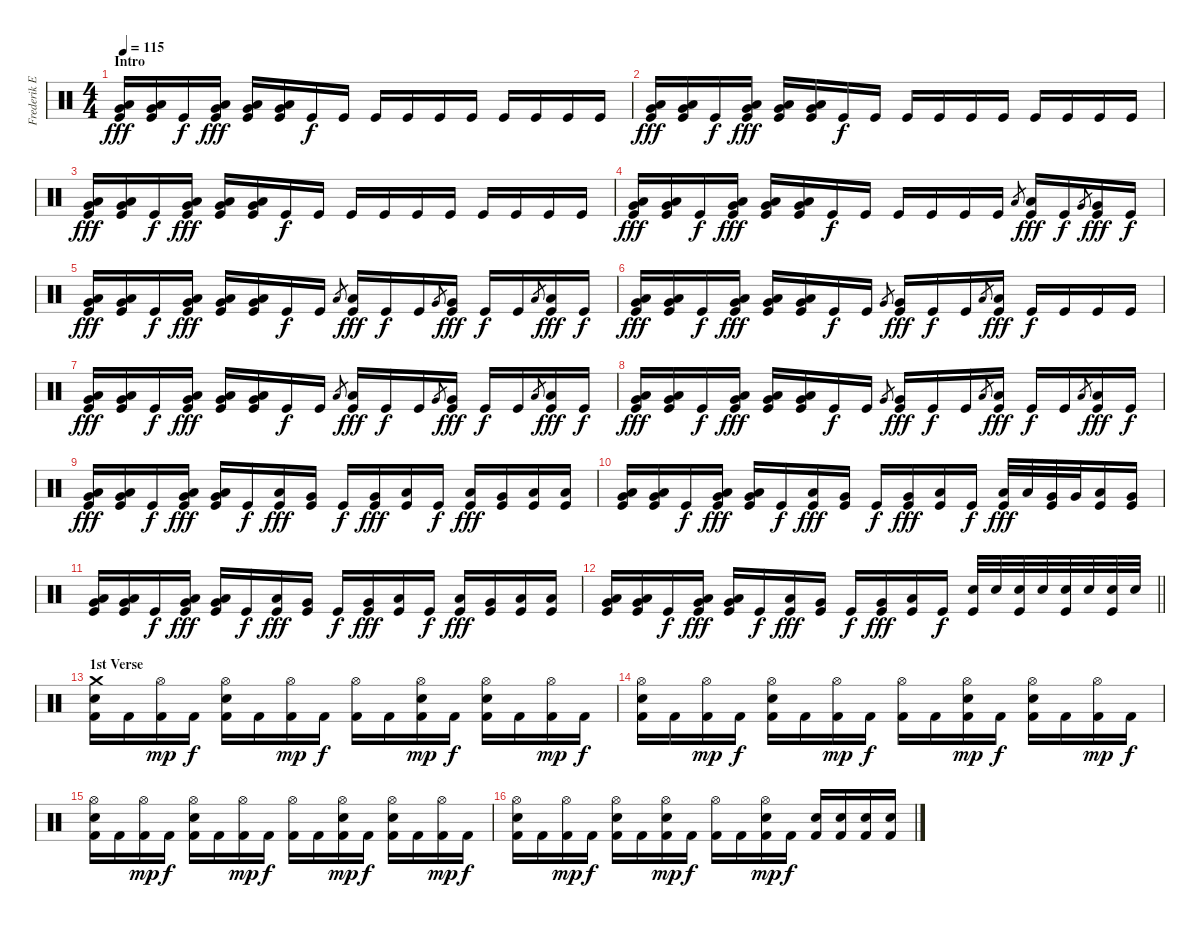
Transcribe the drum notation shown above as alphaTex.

\track ("Frederik Ehmke" "Frederik E") {instrument percussion}
\staff {score}
\articulation defaults
\ts (4 4)
\section ("" "Intro")
\tempo 115
\clef neutral
\ks c
("Very Low Tom (hit)" "Low Floor Tom (hit)" "Kick (hit)").16{dy fff} ("Very Low Tom (hit)" "Low Floor Tom (hit)" "Kick (hit)").16 "Kick (hit)".16{dy f} ("Very Low Tom (hit)" "Low Floor Tom (hit)" "Kick (hit)").16{dy fff} ("Very Low Tom (hit)" "Low Floor Tom (hit)" "Kick (hit)").16 ("Very Low Tom (hit)" "Low Floor Tom (hit)" "Kick (hit)").16 "Kick (hit)".16{dy f} "Kick (hit)".16 "Kick (hit)".16 "Kick (hit)".16 "Kick (hit)".16 "Kick (hit)".16 "Kick (hit)".16 "Kick (hit)".16 "Kick (hit)".16 "Kick (hit)".16 |
("Very Low Tom (hit)" "Low Floor Tom (hit)" "Kick (hit)").16{dy fff} ("Very Low Tom (hit)" "Low Floor Tom (hit)" "Kick (hit)").16 "Kick (hit)".16{dy f} ("Very Low Tom (hit)" "Low Floor Tom (hit)" "Kick (hit)").16{dy fff} ("Very Low Tom (hit)" "Low Floor Tom (hit)" "Kick (hit)").16 ("Very Low Tom (hit)" "Low Floor Tom (hit)" "Kick (hit)").16 "Kick (hit)".16{dy f} "Kick (hit)".16 "Kick (hit)".16 "Kick (hit)".16 "Kick (hit)".16 "Kick (hit)".16 "Kick (hit)".16 "Kick (hit)".16 "Kick (hit)".16 "Kick (hit)".16 |
("Very Low Tom (hit)" "Low Floor Tom (hit)" "Kick (hit)").16{dy fff} ("Very Low Tom (hit)" "Low Floor Tom (hit)" "Kick (hit)").16 "Kick (hit)".16{dy f} ("Very Low Tom (hit)" "Low Floor Tom (hit)" "Kick (hit)").16{dy fff} ("Very Low Tom (hit)" "Low Floor Tom (hit)" "Kick (hit)").16 ("Very Low Tom (hit)" "Low Floor Tom (hit)" "Kick (hit)").16 "Kick (hit)".16{dy f} "Kick (hit)".16 "Kick (hit)".16 "Kick (hit)".16 "Kick (hit)".16 "Kick (hit)".16 "Kick (hit)".16 "Kick (hit)".16 "Kick (hit)".16 "Kick (hit)".16 |
("Very Low Tom (hit)" "Low Floor Tom (hit)" "Kick (hit)").16{dy fff} ("Very Low Tom (hit)" "Low Floor Tom (hit)" "Kick (hit)").16 "Kick (hit)".16{dy f} ("Very Low Tom (hit)" "Low Floor Tom (hit)" "Kick (hit)").16{dy fff} ("Very Low Tom (hit)" "Low Floor Tom (hit)" "Kick (hit)").16 ("Very Low Tom (hit)" "Low Floor Tom (hit)" "Kick (hit)").16 "Kick (hit)".16{dy f} "Kick (hit)".16 "Kick (hit)".16 "Kick (hit)".16 "Kick (hit)".16 "Kick (hit)".16 "Low Tom (hit)".8{gr} ("Low Tom (hit)" "Kick (hit)").16{dy fff} "Kick (hit)".16{dy f} "Very Low Tom (hit)".8{gr} ("Very Low Tom (hit)" "Kick (hit)").16{dy fff} "Kick (hit)".16{dy f} |
("Very Low Tom (hit)" "Low Floor Tom (hit)" "Kick (hit)").16{dy fff} ("Very Low Tom (hit)" "Low Floor Tom (hit)" "Kick (hit)").16 "Kick (hit)".16{dy f} ("Very Low Tom (hit)" "Low Floor Tom (hit)" "Kick (hit)").16{dy fff} ("Very Low Tom (hit)" "Low Floor Tom (hit)" "Kick (hit)").16 ("Very Low Tom (hit)" "Low Floor Tom (hit)" "Kick (hit)").16 "Kick (hit)".16{dy f} "Kick (hit)".16 "Low Tom (hit)".8{gr} ("Low Tom (hit)" "Kick (hit)").16{dy fff} "Kick (hit)".16{dy f} "Kick (hit)".16 "Very Low Tom (hit)".8{gr} ("Very Low Tom (hit)" "Kick (hit)").16{dy fff} "Kick (hit)".16{dy f} "Kick (hit)".16 "Low Floor Tom (hit)".8{gr} ("Low Floor Tom (hit)" "Kick (hit)").16{dy fff} "Kick (hit)".16{dy f} |
("Very Low Tom (hit)" "Low Floor Tom (hit)" "Kick (hit)").16{dy fff} ("Very Low Tom (hit)" "Low Floor Tom (hit)" "Kick (hit)").16 "Kick (hit)".16{dy f} ("Very Low Tom (hit)" "Low Floor Tom (hit)" "Kick (hit)").16{dy fff} ("Very Low Tom (hit)" "Low Floor Tom (hit)" "Kick (hit)").16 ("Very Low Tom (hit)" "Low Floor Tom (hit)" "Kick (hit)").16 "Kick (hit)".16{dy f} "Kick (hit)".16 "Very Low Tom (hit)".8{gr} ("Very Low Tom (hit)" "Kick (hit)").16{dy fff} "Kick (hit)".16{dy f} "Kick (hit)".16 "Low Floor Tom (hit)".8{gr} ("Low Floor Tom (hit)" "Kick (hit)").16{dy fff} "Kick (hit)".16{dy f} "Kick (hit)".16 "Kick (hit)".16 "Kick (hit)".16 |
("Very Low Tom (hit)" "Low Floor Tom (hit)" "Kick (hit)").16{dy fff} ("Very Low Tom (hit)" "Low Floor Tom (hit)" "Kick (hit)").16 "Kick (hit)".16{dy f} ("Very Low Tom (hit)" "Low Floor Tom (hit)" "Kick (hit)").16{dy fff} ("Very Low Tom (hit)" "Low Floor Tom (hit)" "Kick (hit)").16 ("Very Low Tom (hit)" "Low Floor Tom (hit)" "Kick (hit)").16 "Kick (hit)".16{dy f} "Kick (hit)".16 "Low Tom (hit)".8{gr} ("Low Tom (hit)" "Kick (hit)").16{dy fff} "Kick (hit)".16{dy f} "Kick (hit)".16 "Very Low Tom (hit)".8{gr} ("Very Low Tom (hit)" "Kick (hit)").16{dy fff} "Kick (hit)".16{dy f} "Kick (hit)".16 "Low Floor Tom (hit)".8{gr} ("Low Floor Tom (hit)" "Kick (hit)").16{dy fff} "Kick (hit)".16{dy f} |
("Very Low Tom (hit)" "Low Floor Tom (hit)" "Kick (hit)").16{dy fff} ("Very Low Tom (hit)" "Low Floor Tom (hit)" "Kick (hit)").16 "Kick (hit)".16{dy f} ("Very Low Tom (hit)" "Low Floor Tom (hit)" "Kick (hit)").16{dy fff} ("Very Low Tom (hit)" "Low Floor Tom (hit)" "Kick (hit)").16 ("Very Low Tom (hit)" "Low Floor Tom (hit)" "Kick (hit)").16 "Kick (hit)".16{dy f} "Kick (hit)".16 "Very Low Tom (hit)".8{gr} ("Very Low Tom (hit)" "Kick (hit)").16{dy fff} "Kick (hit)".16{dy f} "Kick (hit)".16 "Low Floor Tom (hit)".8{gr} ("Low Floor Tom (hit)" "Kick (hit)").16{dy fff} "Kick (hit)".16{dy f} "Kick (hit)".16 "Low Floor Tom (hit)".8{gr} ("Low Floor Tom (hit)" "Kick (hit)").16{dy fff} "Kick (hit)".16{dy f} |
("Very Low Tom (hit)" "Low Floor Tom (hit)" "Kick (hit)").16{dy fff} ("Very Low Tom (hit)" "Low Floor Tom (hit)" "Kick (hit)").16 "Kick (hit)".16{dy f} ("Very Low Tom (hit)" "Low Floor Tom (hit)" "Kick (hit)").16{dy fff} ("Very Low Tom (hit)" "Low Floor Tom (hit)" "Kick (hit)").16 "Kick (hit)".16{dy f} ("Low Tom (hit)" "Kick (hit)").16{dy fff} ("Very Low Tom (hit)" "Kick (hit)").16 "Kick (hit)".16{dy f} ("Very Low Tom (hit)" "Kick (hit)").16{dy fff} ("Low Floor Tom (hit)" "Kick (hit)").16 "Kick (hit)".16{dy f} ("Low Floor Tom (hit)" "Kick (hit)").16{dy fff} ("Very Low Tom (hit)" "Kick (hit)").16 ("Low Tom (hit)" "Kick (hit)").16 ("Low Floor Tom (hit)" "Kick (hit)").16 |
("Very Low Tom (hit)" "Low Floor Tom (hit)" "Kick (hit)").16 ("Very Low Tom (hit)" "Low Floor Tom (hit)" "Kick (hit)").16 "Kick (hit)".16{dy f} ("Very Low Tom (hit)" "Low Floor Tom (hit)" "Kick (hit)").16{dy fff} ("Very Low Tom (hit)" "Low Floor Tom (hit)" "Kick (hit)").16 "Kick (hit)".16{dy f} ("Low Tom (hit)" "Kick (hit)").16{dy fff} ("Very Low Tom (hit)" "Kick (hit)").16 "Kick (hit)".16{dy f} ("Very Low Tom (hit)" "Kick (hit)").16{dy fff} ("Low Floor Tom (hit)" "Kick (hit)").16 "Kick (hit)".16{dy f} ("Low Floor Tom (hit)" "Kick (hit)").32{dy fff} "Low Floor Tom (hit)".32 ("Very Low Tom (hit)" "Kick (hit)").32 "Very Low Tom (hit)".32 ("Low Tom (hit)" "Kick (hit)").16 ("Very Low Tom (hit)" "Kick (hit)").16 |
("Very Low Tom (hit)" "Low Floor Tom (hit)" "Kick (hit)").16 ("Very Low Tom (hit)" "Low Floor Tom (hit)" "Kick (hit)").16 "Kick (hit)".16{dy f} ("Very Low Tom (hit)" "Low Floor Tom (hit)" "Kick (hit)").16{dy fff} ("Very Low Tom (hit)" "Low Floor Tom (hit)" "Kick (hit)").16 "Kick (hit)".16{dy f} ("Low Tom (hit)" "Kick (hit)").16{dy fff} ("Very Low Tom (hit)" "Kick (hit)").16 "Kick (hit)".16{dy f} ("Very Low Tom (hit)" "Kick (hit)").16{dy fff} ("Low Floor Tom (hit)" "Kick (hit)").16 "Kick (hit)".16{dy f} ("Low Floor Tom (hit)" "Kick (hit)").16{dy fff} ("Very Low Tom (hit)" "Kick (hit)").16 ("Low Tom (hit)" "Kick (hit)").16 ("Low Floor Tom (hit)" "Kick (hit)").16 |
\barLineRight lightlight
("Very Low Tom (hit)" "Low Floor Tom (hit)" "Kick (hit)").16 ("Very Low Tom (hit)" "Low Floor Tom (hit)" "Kick (hit)").16 "Kick (hit)".16{dy f} ("Very Low Tom (hit)" "Low Floor Tom (hit)" "Kick (hit)").16{dy fff} ("Very Low Tom (hit)" "Low Floor Tom (hit)" "Kick (hit)").16 "Kick (hit)".16{dy f} ("Low Tom (hit)" "Kick (hit)").16{dy fff} ("Very Low Tom (hit)" "Kick (hit)").16 "Kick (hit)".16{dy f} ("Very Low Tom (hit)" "Kick (hit)").16{dy fff} ("Low Floor Tom (hit)" "Kick (hit)").16 "Kick (hit)".16{dy f} ("Electric Snare (hit)" "Kick (hit)").32 "Electric Snare (hit)".32 ("Electric Snare (hit)" "Kick (hit)").32 "Electric Snare (hit)".32 ("Electric Snare (hit)" "Kick (hit)").32 "Electric Snare (hit)".32 ("Electric Snare (hit)" "Kick (hit)").32 "Electric Snare (hit)".32 |
\section ("" "1st Verse")
("Crash medium (hit)" "Electric Snare (hit)" "Kick (hit) 2").16 "Kick (hit) 2".16 ("Hi-Hat (open)" "Kick (hit) 2").16{dy mp} "Kick (hit) 2".16{dy f} ("Hi-Hat (open)" "Electric Snare (hit)" "Kick (hit) 2").16 "Kick (hit) 2".16 ("Hi-Hat (open)" "Kick (hit) 2").16{dy mp} "Kick (hit) 2".16{dy f} ("Hi-Hat (open)" "Kick (hit) 2").16 "Kick (hit) 2".16 ("Hi-Hat (open)" "Electric Snare (hit)" "Kick (hit) 2").16{dy mp} "Kick (hit) 2".16{dy f} ("Hi-Hat (open)" "Electric Snare (hit)" "Kick (hit) 2").16 "Kick (hit) 2".16 ("Hi-Hat (open)" "Kick (hit) 2").16{dy mp} "Kick (hit) 2".16{dy f} |
("Hi-Hat (open)" "Electric Snare (hit)" "Kick (hit) 2").16 "Kick (hit) 2".16 ("Hi-Hat (open)" "Kick (hit) 2").16{dy mp} "Kick (hit) 2".16{dy f} ("Hi-Hat (open)" "Electric Snare (hit)" "Kick (hit) 2").16 "Kick (hit) 2".16 ("Hi-Hat (open)" "Kick (hit) 2").16{dy mp} "Kick (hit) 2".16{dy f} ("Hi-Hat (open)" "Kick (hit) 2").16 "Kick (hit) 2".16 ("Hi-Hat (open)" "Electric Snare (hit)" "Kick (hit) 2").16{dy mp} "Kick (hit) 2".16{dy f} ("Hi-Hat (open)" "Electric Snare (hit)" "Kick (hit) 2").16 "Kick (hit) 2".16 ("Hi-Hat (open)" "Kick (hit) 2").16{dy mp} "Kick (hit) 2".16{dy f} |
("Hi-Hat (open)" "Electric Snare (hit)" "Kick (hit) 2").16 "Kick (hit) 2".16 ("Hi-Hat (open)" "Kick (hit) 2").16{dy mp} "Kick (hit) 2".16{dy f} ("Hi-Hat (open)" "Electric Snare (hit)" "Kick (hit) 2").16 "Kick (hit) 2".16 ("Hi-Hat (open)" "Kick (hit) 2").16{dy mp} "Kick (hit) 2".16{dy f} ("Hi-Hat (open)" "Kick (hit) 2").16 "Kick (hit) 2".16 ("Hi-Hat (open)" "Electric Snare (hit)" "Kick (hit) 2").16{dy mp} "Kick (hit) 2".16{dy f} ("Hi-Hat (open)" "Electric Snare (hit)" "Kick (hit) 2").16 "Kick (hit) 2".16 ("Hi-Hat (open)" "Kick (hit) 2").16{dy mp} "Kick (hit) 2".16{dy f} |
("Hi-Hat (open)" "Electric Snare (hit)" "Kick (hit) 2").16 "Kick (hit) 2".16 ("Hi-Hat (open)" "Kick (hit) 2").16{dy mp} "Kick (hit) 2".16{dy f} ("Hi-Hat (open)" "Electric Snare (hit)" "Kick (hit) 2").16 "Kick (hit) 2".16 ("Hi-Hat (open)" "Electric Snare (hit)" "Kick (hit) 2").16{dy mp} "Kick (hit) 2".16{dy f} ("Hi-Hat (open)" "Kick (hit) 2").16 "Kick (hit) 2".16 ("Hi-Hat (open)" "Electric Snare (hit)" "Kick (hit) 2").16{dy mp} "Kick (hit) 2".16{dy f} ("Electric Snare (hit)" "Kick (hit) 2").16 ("Electric Snare (hit)" "Kick (hit) 2").16 ("Electric Snare (hit)" "Kick (hit) 2").16 ("Electric Snare (hit)" "Kick (hit) 2").16
